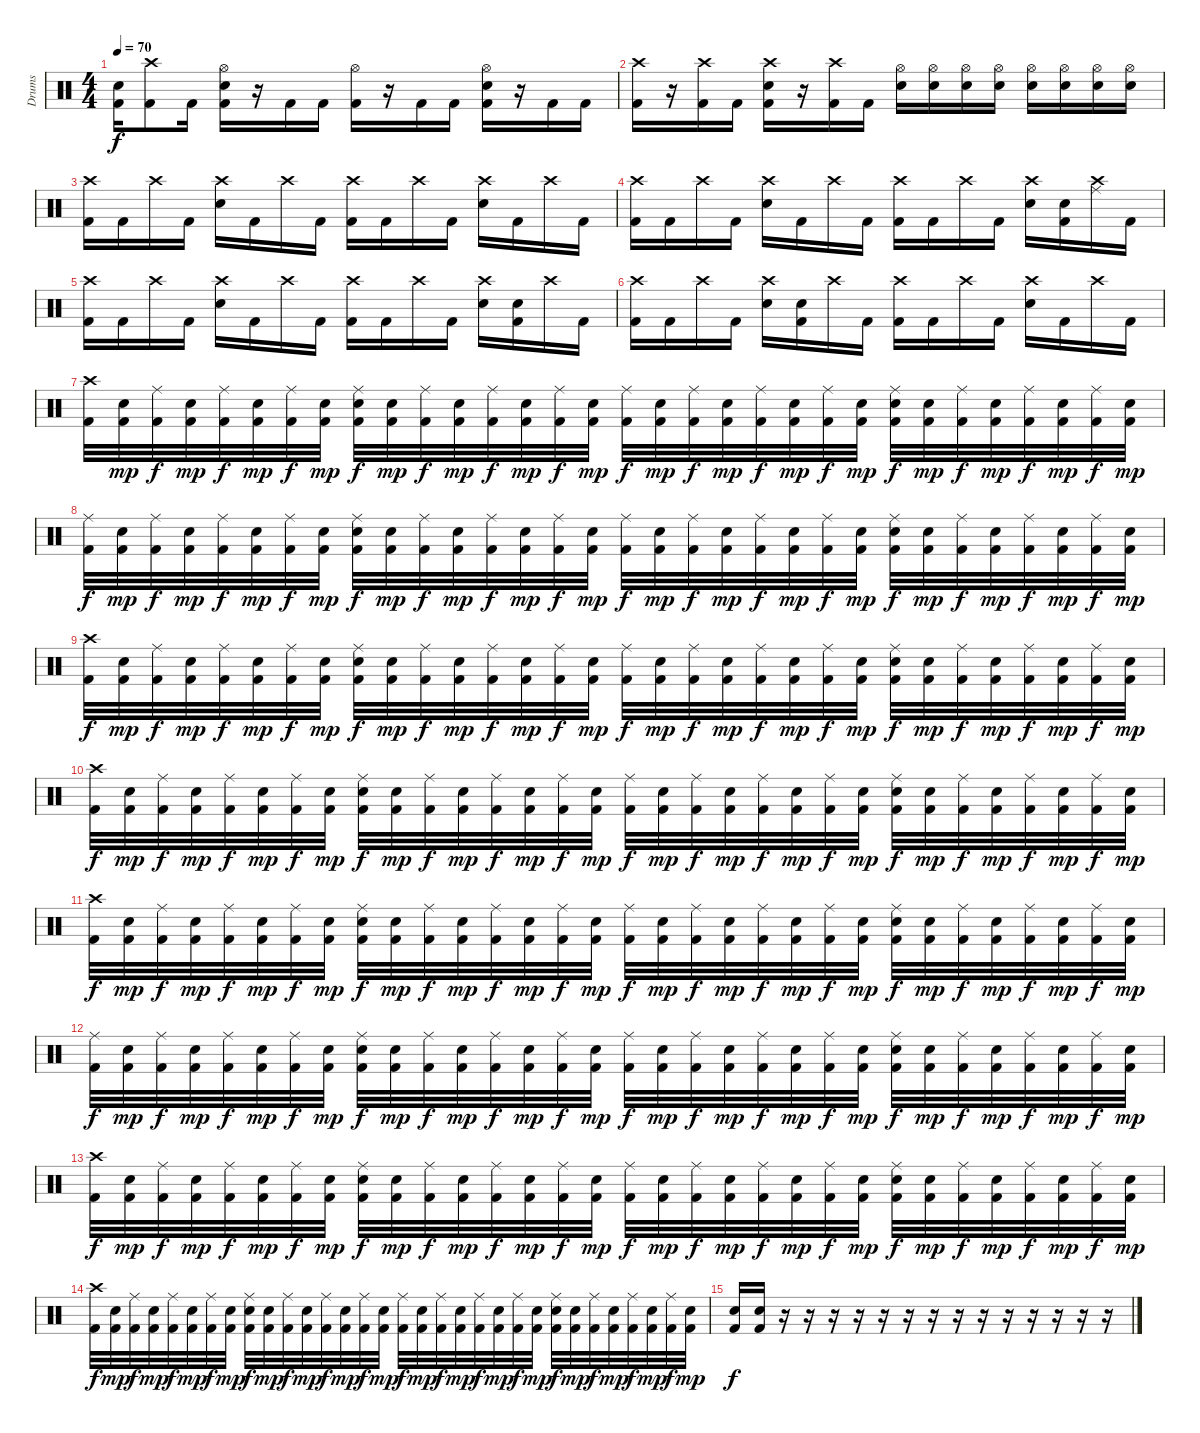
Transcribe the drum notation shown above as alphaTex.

\track ("Drums" "Drums") {instrument percussion}
\staff {score}
\articulation defaults
\ts (4 4)
\tempo 70
\clef neutral
\ks c
("Snare (hit) 2" "Kick (hit) 2").16{dy f} ("Crash high (hit)" "Kick (hit) 2").8 "Kick (hit) 2".16 ("Hi-Hat (open)" "Snare (hit) 2" "Kick (hit) 2").16 r.16 "Kick (hit) 2".16 "Kick (hit) 2".16 ("Hi-Hat (open)" "Kick (hit) 2").16 r.16 "Kick (hit) 2".16 "Kick (hit) 2".16 ("Hi-Hat (open)" "Snare (hit) 2" "Kick (hit) 2").16 r.16 "Kick (hit) 2".16 "Kick (hit) 2".16 |
("Crash high (hit)" "Kick (hit) 2").16 r.16 ("Crash high (hit)" "Kick (hit) 2").16 "Kick (hit) 2".16 ("Crash high (hit)" "Snare (hit) 2" "Kick (hit) 2").16 r.16 ("Crash high (hit)" "Kick (hit) 2").16 "Kick (hit) 2".16 ("Snare (hit) 2" "Hi-Hat (open)").16 ("Snare (hit) 2" "Hi-Hat (open)").16 ("Snare (hit) 2" "Hi-Hat (open)").16 ("Snare (hit) 2" "Hi-Hat (open)").16 ("Snare (hit) 2" "Hi-Hat (open)").16 ("Snare (hit) 2" "Hi-Hat (open)").16 ("Snare (hit) 2" "Hi-Hat (open)").16 ("Snare (hit) 2" "Hi-Hat (open)").16 |
("Crash high (hit)" "Kick (hit) 2").16 "Kick (hit) 2".16 "Crash high (hit)".16 "Kick (hit) 2".16 ("Crash high (hit)" "Snare (hit) 2").16 "Kick (hit) 2".16 "Crash high (hit)".16 "Kick (hit) 2".16 ("Crash high (hit)" "Kick (hit) 2").16 "Kick (hit) 2".16 "Crash high (hit)".16 "Kick (hit) 2".16 ("Crash high (hit)" "Snare (hit) 2").16 "Kick (hit) 2".16 "Crash high (hit)".16 "Kick (hit) 2".16 |
("Crash high (hit)" "Kick (hit) 2").16 "Kick (hit) 2".16 "Crash high (hit)".16 "Kick (hit) 2".16 ("Crash high (hit)" "Snare (hit) 2").16 "Kick (hit) 2".16 "Crash high (hit)".16 "Kick (hit) 2".16 ("Crash high (hit)" "Kick (hit) 2").16 "Kick (hit) 2".16 "Crash high (hit)".16 "Kick (hit) 2".16 ("Crash high (hit)" "Snare (hit) 2").16 ("Snare (hit) 2" "Kick (hit) 2").16 ("Crash high (hit)" "Ride (middle)").16 "Kick (hit) 2".16 |
("Crash high (hit)" "Kick (hit) 2").16 "Kick (hit) 2".16 "Crash high (hit)".16 "Kick (hit) 2".16 ("Crash high (hit)" "Snare (hit) 2").16 "Kick (hit) 2".16 "Crash high (hit)".16 "Kick (hit) 2".16 ("Crash high (hit)" "Kick (hit) 2").16 "Kick (hit) 2".16 "Crash high (hit)".16 "Kick (hit) 2".16 ("Crash high (hit)" "Snare (hit) 2").16 ("Snare (hit) 2" "Kick (hit) 2").16 "Crash high (hit)".16 "Kick (hit) 2".16 |
("Crash high (hit)" "Kick (hit) 2").16 "Kick (hit) 2".16 "Crash high (hit)".16 "Kick (hit) 2".16 ("Crash high (hit)" "Snare (hit) 2").16 ("Snare (hit) 2" "Kick (hit) 2").16 "Crash high (hit)".16 "Kick (hit) 2".16 ("Crash high (hit)" "Kick (hit) 2").16 "Kick (hit) 2".16 "Crash high (hit)".16 "Kick (hit) 2".16 ("Crash high (hit)" "Snare (hit) 2").16 "Kick (hit) 2".16 "Crash high (hit)".16 "Kick (hit) 2".16 |
("Crash high (hit)" "Kick (hit) 2").32 ("Metronome (bell)" "Kick (hit) 2").32{dy mp} ("Ride (middle)" "Kick (hit) 2").32{dy f} ("Metronome (bell)" "Kick (hit) 2").32{dy mp} ("Ride (middle)" "Kick (hit) 2").32{dy f} ("Metronome (bell)" "Kick (hit) 2").32{dy mp} ("Ride (middle)" "Kick (hit) 2").32{dy f} ("Metronome (bell)" "Kick (hit) 2").32{dy mp} ("Ride (middle)" "Snare (hit) 2" "Kick (hit) 2").32{dy f} ("Metronome (bell)" "Kick (hit) 2").32{dy mp} ("Ride (middle)" "Kick (hit) 2").32{dy f} ("Metronome (bell)" "Kick (hit) 2").32{dy mp} ("Ride (middle)" "Kick (hit) 2").32{dy f} ("Metronome (bell)" "Kick (hit) 2").32{dy mp} ("Ride (middle)" "Kick (hit) 2").32{dy f} ("Metronome (bell)" "Kick (hit) 2").32{dy mp} ("Ride (middle)" "Kick (hit) 2").32{dy f} ("Metronome (bell)" "Kick (hit) 2").32{dy mp} ("Ride (middle)" "Kick (hit) 2").32{dy f} ("Metronome (bell)" "Kick (hit) 2").32{dy mp} ("Ride (middle)" "Kick (hit) 2").32{dy f} ("Metronome (bell)" "Kick (hit) 2").32{dy mp} ("Ride (middle)" "Kick (hit) 2").32{dy f} ("Metronome (bell)" "Kick (hit) 2").32{dy mp} ("Ride (middle)" "Snare (hit) 2" "Kick (hit) 2").32{dy f} ("Metronome (bell)" "Kick (hit) 2").32{dy mp} ("Ride (middle)" "Kick (hit) 2").32{dy f} ("Metronome (bell)" "Kick (hit) 2").32{dy mp} ("Ride (middle)" "Kick (hit) 2").32{dy f} ("Metronome (bell)" "Kick (hit) 2").32{dy mp} ("Ride (middle)" "Kick (hit) 2").32{dy f} ("Metronome (bell)" "Kick (hit) 2").32{dy mp} |
("Ride (middle)" "Kick (hit) 2").32{dy f} ("Metronome (bell)" "Kick (hit) 2").32{dy mp} ("Ride (middle)" "Kick (hit) 2").32{dy f} ("Metronome (bell)" "Kick (hit) 2").32{dy mp} ("Ride (middle)" "Kick (hit) 2").32{dy f} ("Metronome (bell)" "Kick (hit) 2").32{dy mp} ("Ride (middle)" "Kick (hit) 2").32{dy f} ("Metronome (bell)" "Kick (hit) 2").32{dy mp} ("Ride (middle)" "Snare (hit) 2" "Kick (hit) 2").32{dy f} ("Metronome (bell)" "Kick (hit) 2").32{dy mp} ("Ride (middle)" "Kick (hit) 2").32{dy f} ("Metronome (bell)" "Kick (hit) 2").32{dy mp} ("Ride (middle)" "Kick (hit) 2").32{dy f} ("Metronome (bell)" "Kick (hit) 2").32{dy mp} ("Ride (middle)" "Kick (hit) 2").32{dy f} ("Metronome (bell)" "Kick (hit) 2").32{dy mp} ("Ride (middle)" "Kick (hit) 2").32{dy f} ("Metronome (bell)" "Kick (hit) 2").32{dy mp} ("Ride (middle)" "Kick (hit) 2").32{dy f} ("Metronome (bell)" "Kick (hit) 2").32{dy mp} ("Ride (middle)" "Kick (hit) 2").32{dy f} ("Metronome (bell)" "Kick (hit) 2").32{dy mp} ("Ride (middle)" "Kick (hit) 2").32{dy f} ("Metronome (bell)" "Kick (hit) 2").32{dy mp} ("Ride (middle)" "Snare (hit) 2" "Kick (hit) 2").32{dy f} ("Metronome (bell)" "Kick (hit) 2").32{dy mp} ("Ride (middle)" "Kick (hit) 2").32{dy f} ("Metronome (bell)" "Kick (hit) 2").32{dy mp} ("Ride (middle)" "Kick (hit) 2").32{dy f} ("Metronome (bell)" "Kick (hit) 2").32{dy mp} ("Ride (middle)" "Kick (hit) 2").32{dy f} ("Metronome (bell)" "Kick (hit) 2").32{dy mp} |
("Crash high (hit)" "Kick (hit) 2").32{dy f} ("Metronome (bell)" "Kick (hit) 2").32{dy mp} ("Ride (middle)" "Kick (hit) 2").32{dy f} ("Metronome (bell)" "Kick (hit) 2").32{dy mp} ("Ride (middle)" "Kick (hit) 2").32{dy f} ("Metronome (bell)" "Kick (hit) 2").32{dy mp} ("Ride (middle)" "Kick (hit) 2").32{dy f} ("Metronome (bell)" "Kick (hit) 2").32{dy mp} ("Ride (middle)" "Snare (hit) 2" "Kick (hit) 2").32{dy f} ("Metronome (bell)" "Kick (hit) 2").32{dy mp} ("Ride (middle)" "Kick (hit) 2").32{dy f} ("Metronome (bell)" "Kick (hit) 2").32{dy mp} ("Ride (middle)" "Kick (hit) 2").32{dy f} ("Metronome (bell)" "Kick (hit) 2").32{dy mp} ("Ride (middle)" "Kick (hit) 2").32{dy f} ("Metronome (bell)" "Kick (hit) 2").32{dy mp} ("Ride (middle)" "Kick (hit) 2").32{dy f} ("Metronome (bell)" "Kick (hit) 2").32{dy mp} ("Ride (middle)" "Kick (hit) 2").32{dy f} ("Metronome (bell)" "Kick (hit) 2").32{dy mp} ("Ride (middle)" "Kick (hit) 2").32{dy f} ("Metronome (bell)" "Kick (hit) 2").32{dy mp} ("Ride (middle)" "Kick (hit) 2").32{dy f} ("Metronome (bell)" "Kick (hit) 2").32{dy mp} ("Ride (middle)" "Snare (hit) 2" "Kick (hit) 2").32{dy f} ("Metronome (bell)" "Kick (hit) 2").32{dy mp} ("Ride (middle)" "Kick (hit) 2").32{dy f} ("Metronome (bell)" "Kick (hit) 2").32{dy mp} ("Ride (middle)" "Kick (hit) 2").32{dy f} ("Metronome (bell)" "Kick (hit) 2").32{dy mp} ("Ride (middle)" "Kick (hit) 2").32{dy f} ("Metronome (bell)" "Kick (hit) 2").32{dy mp} |
("Crash high (hit)" "Kick (hit) 2").32{dy f} ("Metronome (bell)" "Kick (hit) 2").32{dy mp} ("Ride (middle)" "Kick (hit) 2").32{dy f} ("Metronome (bell)" "Kick (hit) 2").32{dy mp} ("Ride (middle)" "Kick (hit) 2").32{dy f} ("Metronome (bell)" "Kick (hit) 2").32{dy mp} ("Ride (middle)" "Kick (hit) 2").32{dy f} ("Metronome (bell)" "Kick (hit) 2").32{dy mp} ("Ride (middle)" "Snare (hit) 2" "Kick (hit) 2").32{dy f} ("Metronome (bell)" "Kick (hit) 2").32{dy mp} ("Ride (middle)" "Kick (hit) 2").32{dy f} ("Metronome (bell)" "Kick (hit) 2").32{dy mp} ("Ride (middle)" "Kick (hit) 2").32{dy f} ("Metronome (bell)" "Kick (hit) 2").32{dy mp} ("Ride (middle)" "Kick (hit) 2").32{dy f} ("Metronome (bell)" "Kick (hit) 2").32{dy mp} ("Ride (middle)" "Kick (hit) 2").32{dy f} ("Metronome (bell)" "Kick (hit) 2").32{dy mp} ("Ride (middle)" "Kick (hit) 2").32{dy f} ("Metronome (bell)" "Kick (hit) 2").32{dy mp} ("Ride (middle)" "Kick (hit) 2").32{dy f} ("Metronome (bell)" "Kick (hit) 2").32{dy mp} ("Ride (middle)" "Kick (hit) 2").32{dy f} ("Metronome (bell)" "Kick (hit) 2").32{dy mp} ("Ride (middle)" "Snare (hit) 2" "Kick (hit) 2").32{dy f} ("Metronome (bell)" "Kick (hit) 2").32{dy mp} ("Ride (middle)" "Kick (hit) 2").32{dy f} ("Metronome (bell)" "Kick (hit) 2").32{dy mp} ("Ride (middle)" "Kick (hit) 2").32{dy f} ("Metronome (bell)" "Kick (hit) 2").32{dy mp} ("Ride (middle)" "Kick (hit) 2").32{dy f} ("Metronome (bell)" "Kick (hit) 2").32{dy mp} |
("Crash high (hit)" "Kick (hit) 2").32{dy f} ("Metronome (bell)" "Kick (hit) 2").32{dy mp} ("Ride (middle)" "Kick (hit) 2").32{dy f} ("Metronome (bell)" "Kick (hit) 2").32{dy mp} ("Ride (middle)" "Kick (hit) 2").32{dy f} ("Metronome (bell)" "Kick (hit) 2").32{dy mp} ("Ride (middle)" "Kick (hit) 2").32{dy f} ("Metronome (bell)" "Kick (hit) 2").32{dy mp} ("Ride (middle)" "Snare (hit) 2" "Kick (hit) 2").32{dy f} ("Metronome (bell)" "Kick (hit) 2").32{dy mp} ("Ride (middle)" "Kick (hit) 2").32{dy f} ("Metronome (bell)" "Kick (hit) 2").32{dy mp} ("Ride (middle)" "Kick (hit) 2").32{dy f} ("Metronome (bell)" "Kick (hit) 2").32{dy mp} ("Ride (middle)" "Kick (hit) 2").32{dy f} ("Metronome (bell)" "Kick (hit) 2").32{dy mp} ("Ride (middle)" "Kick (hit) 2").32{dy f} ("Metronome (bell)" "Kick (hit) 2").32{dy mp} ("Ride (middle)" "Kick (hit) 2").32{dy f} ("Metronome (bell)" "Kick (hit) 2").32{dy mp} ("Ride (middle)" "Kick (hit) 2").32{dy f} ("Metronome (bell)" "Kick (hit) 2").32{dy mp} ("Ride (middle)" "Kick (hit) 2").32{dy f} ("Metronome (bell)" "Kick (hit) 2").32{dy mp} ("Ride (middle)" "Snare (hit) 2" "Kick (hit) 2").32{dy f} ("Metronome (bell)" "Kick (hit) 2").32{dy mp} ("Ride (middle)" "Kick (hit) 2").32{dy f} ("Metronome (bell)" "Kick (hit) 2").32{dy mp} ("Ride (middle)" "Kick (hit) 2").32{dy f} ("Metronome (bell)" "Kick (hit) 2").32{dy mp} ("Ride (middle)" "Kick (hit) 2").32{dy f} ("Metronome (bell)" "Kick (hit) 2").32{dy mp} |
("Ride (middle)" "Kick (hit) 2").32{dy f} ("Metronome (bell)" "Kick (hit) 2").32{dy mp} ("Ride (middle)" "Kick (hit) 2").32{dy f} ("Metronome (bell)" "Kick (hit) 2").32{dy mp} ("Ride (middle)" "Kick (hit) 2").32{dy f} ("Metronome (bell)" "Kick (hit) 2").32{dy mp} ("Ride (middle)" "Kick (hit) 2").32{dy f} ("Metronome (bell)" "Kick (hit) 2").32{dy mp} ("Ride (middle)" "Snare (hit) 2" "Kick (hit) 2").32{dy f} ("Metronome (bell)" "Kick (hit) 2").32{dy mp} ("Ride (middle)" "Kick (hit) 2").32{dy f} ("Metronome (bell)" "Kick (hit) 2").32{dy mp} ("Ride (middle)" "Kick (hit) 2").32{dy f} ("Metronome (bell)" "Kick (hit) 2").32{dy mp} ("Ride (middle)" "Kick (hit) 2").32{dy f} ("Metronome (bell)" "Kick (hit) 2").32{dy mp} ("Ride (middle)" "Kick (hit) 2").32{dy f} ("Metronome (bell)" "Kick (hit) 2").32{dy mp} ("Ride (middle)" "Kick (hit) 2").32{dy f} ("Metronome (bell)" "Kick (hit) 2").32{dy mp} ("Ride (middle)" "Kick (hit) 2").32{dy f} ("Metronome (bell)" "Kick (hit) 2").32{dy mp} ("Ride (middle)" "Kick (hit) 2").32{dy f} ("Metronome (bell)" "Kick (hit) 2").32{dy mp} ("Ride (middle)" "Snare (hit) 2" "Kick (hit) 2").32{dy f} ("Metronome (bell)" "Kick (hit) 2").32{dy mp} ("Ride (middle)" "Kick (hit) 2").32{dy f} ("Metronome (bell)" "Kick (hit) 2").32{dy mp} ("Ride (middle)" "Kick (hit) 2").32{dy f} ("Metronome (bell)" "Kick (hit) 2").32{dy mp} ("Ride (middle)" "Kick (hit) 2").32{dy f} ("Metronome (bell)" "Kick (hit) 2").32{dy mp} |
("Crash high (hit)" "Kick (hit) 2").32{dy f} ("Metronome (bell)" "Kick (hit) 2").32{dy mp} ("Ride (middle)" "Kick (hit) 2").32{dy f} ("Metronome (bell)" "Kick (hit) 2").32{dy mp} ("Ride (middle)" "Kick (hit) 2").32{dy f} ("Metronome (bell)" "Kick (hit) 2").32{dy mp} ("Ride (middle)" "Kick (hit) 2").32{dy f} ("Metronome (bell)" "Kick (hit) 2").32{dy mp} ("Ride (middle)" "Snare (hit) 2" "Kick (hit) 2").32{dy f} ("Metronome (bell)" "Kick (hit) 2").32{dy mp} ("Ride (middle)" "Kick (hit) 2").32{dy f} ("Metronome (bell)" "Kick (hit) 2").32{dy mp} ("Ride (middle)" "Kick (hit) 2").32{dy f} ("Metronome (bell)" "Kick (hit) 2").32{dy mp} ("Ride (middle)" "Kick (hit) 2").32{dy f} ("Metronome (bell)" "Kick (hit) 2").32{dy mp} ("Ride (middle)" "Kick (hit) 2").32{dy f} ("Metronome (bell)" "Kick (hit) 2").32{dy mp} ("Ride (middle)" "Kick (hit) 2").32{dy f} ("Metronome (bell)" "Kick (hit) 2").32{dy mp} ("Ride (middle)" "Kick (hit) 2").32{dy f} ("Metronome (bell)" "Kick (hit) 2").32{dy mp} ("Ride (middle)" "Kick (hit) 2").32{dy f} ("Metronome (bell)" "Kick (hit) 2").32{dy mp} ("Ride (middle)" "Snare (hit) 2" "Kick (hit) 2").32{dy f} ("Metronome (bell)" "Kick (hit) 2").32{dy mp} ("Ride (middle)" "Kick (hit) 2").32{dy f} ("Metronome (bell)" "Kick (hit) 2").32{dy mp} ("Ride (middle)" "Kick (hit) 2").32{dy f} ("Metronome (bell)" "Kick (hit) 2").32{dy mp} ("Ride (middle)" "Kick (hit) 2").32{dy f} ("Metronome (bell)" "Kick (hit) 2").32{dy mp} |
("Crash high (hit)" "Kick (hit) 2").32{dy f} ("Metronome (bell)" "Kick (hit) 2").32{dy mp} ("Ride (middle)" "Kick (hit) 2").32{dy f} ("Metronome (bell)" "Kick (hit) 2").32{dy mp} ("Ride (middle)" "Kick (hit) 2").32{dy f} ("Metronome (bell)" "Kick (hit) 2").32{dy mp} ("Ride (middle)" "Kick (hit) 2").32{dy f} ("Metronome (bell)" "Kick (hit) 2").32{dy mp} ("Ride (middle)" "Snare (hit) 2" "Kick (hit) 2").32{dy f} ("Metronome (bell)" "Kick (hit) 2").32{dy mp} ("Ride (middle)" "Kick (hit) 2").32{dy f} ("Metronome (bell)" "Kick (hit) 2").32{dy mp} ("Ride (middle)" "Kick (hit) 2").32{dy f} ("Metronome (bell)" "Kick (hit) 2").32{dy mp} ("Ride (middle)" "Kick (hit) 2").32{dy f} ("Metronome (bell)" "Kick (hit) 2").32{dy mp} ("Ride (middle)" "Kick (hit) 2").32{dy f} ("Metronome (bell)" "Kick (hit) 2").32{dy mp} ("Ride (middle)" "Kick (hit) 2").32{dy f} ("Metronome (bell)" "Kick (hit) 2").32{dy mp} ("Ride (middle)" "Kick (hit) 2").32{dy f} ("Metronome (bell)" "Kick (hit) 2").32{dy mp} ("Ride (middle)" "Kick (hit) 2").32{dy f} ("Metronome (bell)" "Kick (hit) 2").32{dy mp} ("Ride (middle)" "Snare (hit) 2" "Kick (hit) 2").32{dy f} ("Metronome (bell)" "Kick (hit) 2").32{dy mp} ("Ride (middle)" "Kick (hit) 2").32{dy f} ("Metronome (bell)" "Kick (hit) 2").32{dy mp} ("Ride (middle)" "Kick (hit) 2").32{dy f} ("Metronome (bell)" "Kick (hit) 2").32{dy mp} ("Ride (middle)" "Kick (hit) 2").32{dy f} ("Metronome (bell)" "Kick (hit) 2").32{dy mp} |
("Snare (hit) 2" "Kick (hit) 2").16{dy f} ("Snare (hit) 2" "Kick (hit) 2").16 r.16 r.16 r.16 r.16 r.16 r.16 r.16 r.16 r.16 r.16 r.16 r.16 r.16 r.16
